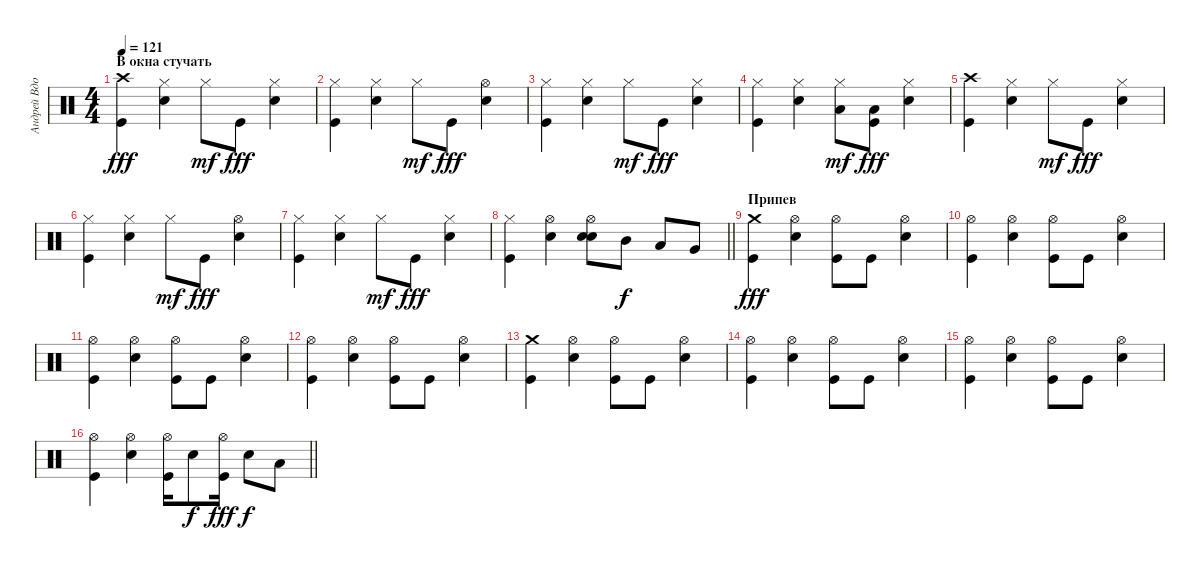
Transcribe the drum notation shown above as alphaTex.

\track ("Андрей Вдовиченко" "Андрей Вдо") {instrument percussion}
\staff {score}
\articulation defaults
\ts (4 4)
\section ("" "В окна стучать")
\tempo 121
\clef neutral
\ks c
("Crash high (hit)" "Kick (hit)").4{dy fff} ("Hi-Hat (closed)" "Electric Snare (hit)").4 "Hi-Hat (closed)".8{dy mf} "Kick (hit)".8{dy fff} ("Hi-Hat (closed)" "Electric Snare (hit)").4 |
("Hi-Hat (closed)" "Kick (hit)").4 ("Hi-Hat (closed)" "Electric Snare (hit)").4 "Hi-Hat (closed)".8{dy mf} "Kick (hit)".8{dy fff} ("Hi-Hat (open)" "Electric Snare (hit)").4 |
("Hi-Hat (closed)" "Kick (hit)").4 ("Hi-Hat (closed)" "Electric Snare (hit)").4 "Hi-Hat (closed)".8{dy mf} "Kick (hit)".8{dy fff} ("Hi-Hat (closed)" "Electric Snare (hit)").4 |
("Hi-Hat (closed)" "Kick (hit)").4 ("Hi-Hat (closed)" "Electric Snare (hit)").4 ("Hi-Hat (closed)" "Low Tom (hit)").8{dy mf} ("Low Tom (hit)" "Kick (hit)").8{dy fff} ("Hi-Hat (closed)" "Electric Snare (hit)").4 |
("Crash high (hit)" "Kick (hit)").4 ("Hi-Hat (closed)" "Electric Snare (hit)").4 "Hi-Hat (closed)".8{dy mf} "Kick (hit)".8{dy fff} ("Hi-Hat (closed)" "Electric Snare (hit)").4 |
("Hi-Hat (closed)" "Kick (hit)").4 ("Hi-Hat (closed)" "Electric Snare (hit)").4 "Hi-Hat (closed)".8{dy mf} "Kick (hit)".8{dy fff} ("Hi-Hat (open)" "Electric Snare (hit)").4 |
("Hi-Hat (closed)" "Kick (hit)").4 ("Hi-Hat (closed)" "Electric Snare (hit)").4 "Hi-Hat (closed)".8{dy mf} "Kick (hit)".8{dy fff} ("Hi-Hat (closed)" "Electric Snare (hit)").4 |
\barLineRight lightlight
("Hi-Hat (closed)" "Kick (hit)").4 ("Hi-Hat (open)" "Electric Snare (hit)").4 ("Hi-Hat (open)" "Snare (hit) 2" "Electric Snare (hit)").8 "Mid Tom (hit)".8{dy f} "Low Tom (hit)".8 "Very Low Tom (hit)".8 |
\section ("" "Припев")
("Crash medium (hit)" "Kick (hit)").4{dy fff} ("Hi-Hat (open)" "Electric Snare (hit)").4 ("Hi-Hat (open)" "Kick (hit)").8 "Kick (hit)".8 ("Hi-Hat (open)" "Electric Snare (hit)").4 |
("Hi-Hat (open)" "Kick (hit)").4 ("Hi-Hat (open)" "Electric Snare (hit)").4 ("Hi-Hat (open)" "Kick (hit)").8 "Kick (hit)".8 ("Hi-Hat (open)" "Electric Snare (hit)").4 |
("Hi-Hat (open)" "Kick (hit)").4 ("Hi-Hat (open)" "Electric Snare (hit)").4 ("Hi-Hat (open)" "Kick (hit)").8 "Kick (hit)".8 ("Hi-Hat (open)" "Electric Snare (hit)").4 |
("Hi-Hat (open)" "Kick (hit)").4 ("Hi-Hat (open)" "Electric Snare (hit)").4 ("Hi-Hat (open)" "Kick (hit)").8 "Kick (hit)".8 ("Hi-Hat (open)" "Electric Snare (hit)").4 |
("Crash medium (hit)" "Kick (hit)").4 ("Hi-Hat (open)" "Electric Snare (hit)").4 ("Hi-Hat (open)" "Kick (hit)").8 "Kick (hit)".8 ("Hi-Hat (open)" "Electric Snare (hit)").4 |
("Hi-Hat (open)" "Kick (hit)").4 ("Hi-Hat (open)" "Electric Snare (hit)").4 ("Hi-Hat (open)" "Kick (hit)").8 "Kick (hit)".8 ("Hi-Hat (open)" "Electric Snare (hit)").4 |
("Hi-Hat (open)" "Kick (hit)").4 ("Hi-Hat (open)" "Electric Snare (hit)").4 ("Hi-Hat (open)" "Kick (hit)").8 "Kick (hit)".8 ("Hi-Hat (open)" "Electric Snare (hit)").4 |
\barLineRight lightlight
("Hi-Hat (open)" "Kick (hit)").4 ("Hi-Hat (open)" "Electric Snare (hit)").4 ("Hi-Hat (open)" "Kick (hit)").16 "Electric Snare (hit)".8{dy f} ("Hi-Hat (open)" "Kick (hit)").16{dy fff} "Electric Snare (hit)".8{dy f} "Low Tom (hit)".8
